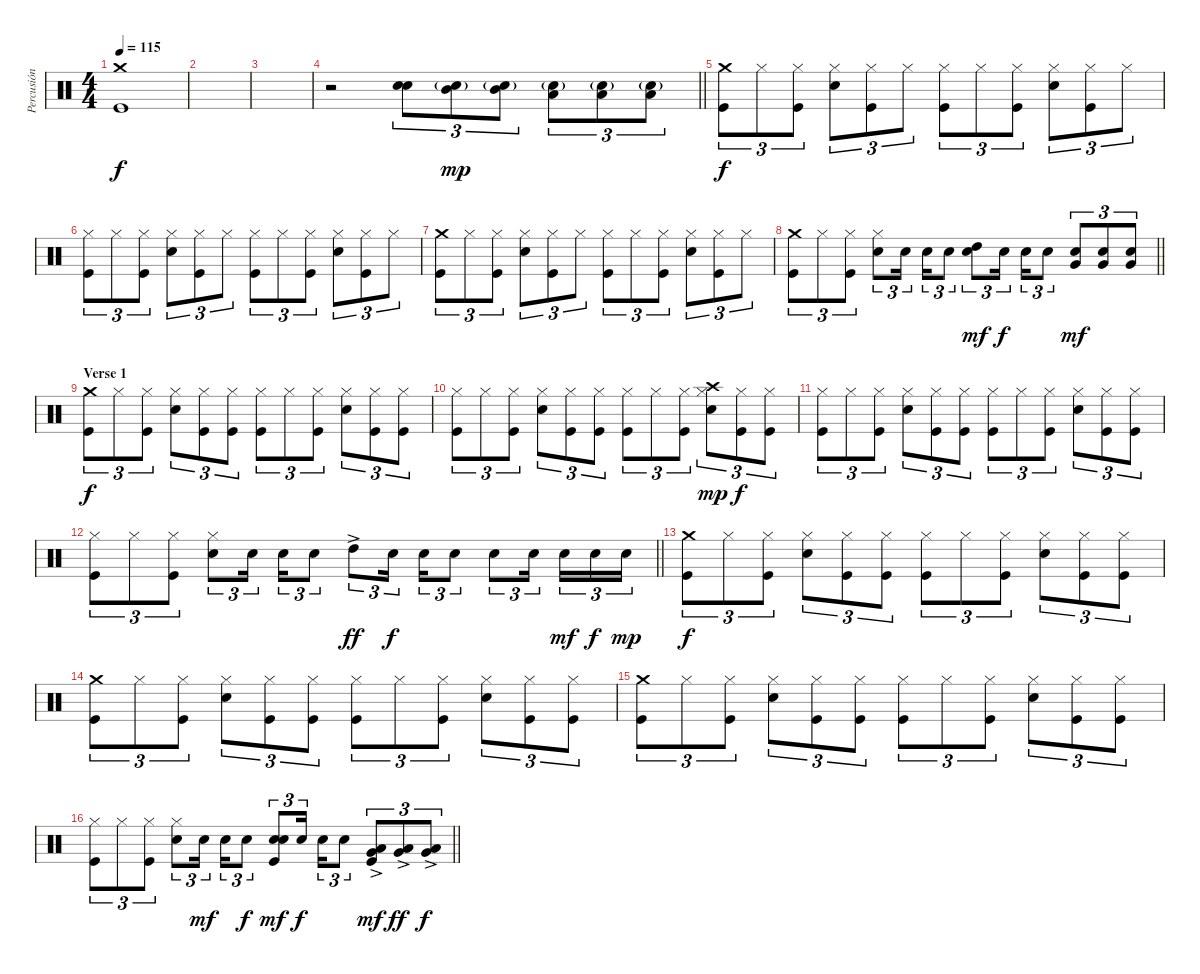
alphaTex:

\track ("Percusión" "Percusión") {instrument percussion}
\staff {score}
\articulation defaults
\ts (4 4)
\section ("" "")
\tempo 115
\clef neutral
\ks c
("Crash medium (hit)" "Kick (hit)").1{dy f} |
|
|
\barLineRight lightlight
r.2 ("Electric Snare (hit)" "Electric Snare (hit)").8{tu (3 2)} ("Mid Tom (hit)" "Electric Snare (hit)"{g}).8{tu (3 2) dy mp} ("Mid Tom (hit)" "Electric Snare (hit)"{g}).8{tu (3 2)} ("Low Tom (hit)" "Electric Snare (hit)"{g}).8{tu (3 2)} ("Low Tom (hit)" "Electric Snare (hit)"{g}).8{tu (3 2)} ("Low Tom (hit)" "Electric Snare (hit)"{g}).8{tu (3 2)} |
("Crash medium (hit)" "Kick (hit)").8{tu (3 2) dy f} "Hi-Hat (closed)".8{tu (3 2)} ("Hi-Hat (closed)" "Kick (hit)").8{tu (3 2)} ("Electric Snare (hit)" "Hi-Hat (closed)").8{tu (3 2)} ("Hi-Hat (closed)" "Kick (hit)").8{tu (3 2)} "Hi-Hat (closed)".8{tu (3 2)} ("Hi-Hat (closed)" "Kick (hit)").8{tu (3 2)} "Hi-Hat (closed)".8{tu (3 2)} ("Hi-Hat (closed)" "Kick (hit)").8{tu (3 2)} ("Electric Snare (hit)" "Hi-Hat (closed)").8{tu (3 2)} ("Hi-Hat (closed)" "Kick (hit)").8{tu (3 2)} "Hi-Hat (closed)".8{tu (3 2)} |
("Hi-Hat (closed)" "Kick (hit)").8{tu (3 2)} "Hi-Hat (closed)".8{tu (3 2)} ("Hi-Hat (closed)" "Kick (hit)").8{tu (3 2)} ("Electric Snare (hit)" "Hi-Hat (closed)").8{tu (3 2)} ("Hi-Hat (closed)" "Kick (hit)").8{tu (3 2)} "Hi-Hat (closed)".8{tu (3 2)} ("Hi-Hat (closed)" "Kick (hit)").8{tu (3 2)} "Hi-Hat (closed)".8{tu (3 2)} ("Hi-Hat (closed)" "Kick (hit)").8{tu (3 2)} ("Electric Snare (hit)" "Hi-Hat (closed)").8{tu (3 2)} ("Hi-Hat (closed)" "Kick (hit)").8{tu (3 2)} "Hi-Hat (closed)".8{tu (3 2)} |
("Crash medium (hit)" "Kick (hit)").8{tu (3 2)} "Hi-Hat (closed)".8{tu (3 2)} ("Hi-Hat (closed)" "Kick (hit)").8{tu (3 2)} ("Electric Snare (hit)" "Hi-Hat (closed)").8{tu (3 2)} ("Hi-Hat (closed)" "Kick (hit)").8{tu (3 2)} "Hi-Hat (closed)".8{tu (3 2)} ("Hi-Hat (closed)" "Kick (hit)").8{tu (3 2)} "Hi-Hat (closed)".8{tu (3 2)} ("Hi-Hat (closed)" "Kick (hit)").8{tu (3 2)} ("Electric Snare (hit)" "Hi-Hat (closed)").8{tu (3 2)} ("Hi-Hat (closed)" "Kick (hit)").8{tu (3 2)} "Hi-Hat (closed)".8{tu (3 2)} |
\barLineRight lightlight
("Crash medium (hit)" "Kick (hit)").8{tu (3 2)} "Hi-Hat (closed)".8{tu (3 2)} ("Hi-Hat (closed)" "Kick (hit)").8{tu (3 2)} ("Electric Snare (hit)" "Hi-Hat (closed)").8{tu (3 2)} "Electric Snare (hit)".16{tu (3 2) beam splitsecondary} "Electric Snare (hit)".16{tu (3 2)} "Electric Snare (hit)".8{tu (3 2)} ("High Tom (hit)" "Electric Snare (hit)").8{tu (3 2) dy mf} "Electric Snare (hit)".16{tu (3 2) dy f beam splitsecondary} "Electric Snare (hit)".16{tu (3 2)} "Electric Snare (hit)".8{tu (3 2)} ("Electric Snare (hit)" "Very Low Tom (hit)").8{tu (3 2) dy mf} ("Electric Snare (hit)" "Very Low Tom (hit)").8{tu (3 2)} ("Electric Snare (hit)" "Very Low Tom (hit)").8{tu (3 2)} |
\section ("" "Verse 1")
("Crash medium (hit)" "Kick (hit)").8{tu (3 2) dy f} "Hi-Hat (closed)".8{tu (3 2)} ("Hi-Hat (closed)" "Kick (hit)").8{tu (3 2)} ("Electric Snare (hit)" "Hi-Hat (closed)").8{tu (3 2)} ("Hi-Hat (closed)" "Kick (hit)").8{tu (3 2)} ("Hi-Hat (closed)" "Kick (hit)").8{tu (3 2)} ("Hi-Hat (closed)" "Kick (hit)").8{tu (3 2)} "Hi-Hat (closed)".8{tu (3 2)} ("Hi-Hat (closed)" "Kick (hit)").8{tu (3 2)} ("Electric Snare (hit)" "Hi-Hat (closed)").8{tu (3 2)} ("Hi-Hat (closed)" "Kick (hit)").8{tu (3 2)} ("Hi-Hat (closed)" "Kick (hit)").8{tu (3 2)} |
("Hi-Hat (closed)" "Kick (hit)").8{tu (3 2)} "Hi-Hat (closed)".8{tu (3 2)} ("Hi-Hat (closed)" "Kick (hit)").8{tu (3 2)} ("Electric Snare (hit)" "Hi-Hat (closed)").8{tu (3 2)} ("Hi-Hat (closed)" "Kick (hit)").8{tu (3 2)} ("Hi-Hat (closed)" "Kick (hit)").8{tu (3 2)} ("Hi-Hat (closed)" "Kick (hit)").8{tu (3 2)} "Hi-Hat (closed)".8{tu (3 2)} ("Hi-Hat (closed)" "Kick (hit)").8{tu (3 2)} ("Crash high (hit)" "Electric Snare (hit)" "Hi-Hat (closed)").8{tu (3 2) dy mp} ("Hi-Hat (closed)" "Kick (hit)").8{tu (3 2) dy f} ("Hi-Hat (closed)" "Kick (hit)").8{tu (3 2)} |
("Hi-Hat (closed)" "Kick (hit)").8{tu (3 2)} "Hi-Hat (closed)".8{tu (3 2)} ("Hi-Hat (closed)" "Kick (hit)").8{tu (3 2)} ("Electric Snare (hit)" "Hi-Hat (closed)").8{tu (3 2)} ("Hi-Hat (closed)" "Kick (hit)").8{tu (3 2)} ("Hi-Hat (closed)" "Kick (hit)").8{tu (3 2)} ("Hi-Hat (closed)" "Kick (hit)").8{tu (3 2)} "Hi-Hat (closed)".8{tu (3 2)} ("Hi-Hat (closed)" "Kick (hit)").8{tu (3 2)} ("Electric Snare (hit)" "Hi-Hat (closed)").8{tu (3 2)} ("Hi-Hat (closed)" "Kick (hit)").8{tu (3 2)} ("Hi-Hat (closed)" "Kick (hit)").8{tu (3 2)} |
\barLineRight lightlight
("Hi-Hat (closed)" "Kick (hit)").8{tu (3 2)} "Hi-Hat (closed)".8{tu (3 2)} ("Hi-Hat (closed)" "Kick (hit)").8{tu (3 2)} ("Electric Snare (hit)" "Hi-Hat (closed)").8{tu (3 2)} "Electric Snare (hit)".16{tu (3 2) beam splitsecondary} "Electric Snare (hit)".16{tu (3 2)} "Electric Snare (hit)".8{tu (3 2)} "High Tom (hit)"{ac}.8{tu (3 2) dy ff} "Electric Snare (hit)".16{tu (3 2) dy f beam splitsecondary} "Electric Snare (hit)".16{tu (3 2)} "Electric Snare (hit)".8{tu (3 2)} "Electric Snare (hit)".8{tu (3 2)} "Electric Snare (hit)".16{tu (3 2) beam splitsecondary} "Electric Snare (hit)".16{tu (3 2) dy mf} "Electric Snare (hit)".16{tu (3 2) dy f} "Electric Snare (hit)".16{tu (3 2) dy mp} |
("Crash medium (hit)" "Kick (hit)").8{tu (3 2) dy f} "Hi-Hat (closed)".8{tu (3 2)} ("Hi-Hat (closed)" "Kick (hit)").8{tu (3 2)} ("Electric Snare (hit)" "Hi-Hat (closed)").8{tu (3 2)} ("Hi-Hat (closed)" "Kick (hit)").8{tu (3 2)} ("Hi-Hat (closed)" "Kick (hit)").8{tu (3 2)} ("Hi-Hat (closed)" "Kick (hit)").8{tu (3 2)} "Hi-Hat (closed)".8{tu (3 2)} ("Hi-Hat (closed)" "Kick (hit)").8{tu (3 2)} ("Electric Snare (hit)" "Hi-Hat (closed)").8{tu (3 2)} ("Hi-Hat (closed)" "Kick (hit)").8{tu (3 2)} ("Hi-Hat (closed)" "Kick (hit)").8{tu (3 2)} |
("Crash medium (hit)" "Kick (hit)").8{tu (3 2)} "Hi-Hat (closed)".8{tu (3 2)} ("Hi-Hat (closed)" "Kick (hit)").8{tu (3 2)} ("Electric Snare (hit)" "Hi-Hat (closed)").8{tu (3 2)} ("Hi-Hat (closed)" "Kick (hit)").8{tu (3 2)} ("Hi-Hat (closed)" "Kick (hit)").8{tu (3 2)} ("Hi-Hat (closed)" "Kick (hit)").8{tu (3 2)} "Hi-Hat (closed)".8{tu (3 2)} ("Hi-Hat (closed)" "Kick (hit)").8{tu (3 2)} ("Electric Snare (hit)" "Hi-Hat (closed)").8{tu (3 2)} ("Hi-Hat (closed)" "Kick (hit)").8{tu (3 2)} ("Hi-Hat (closed)" "Kick (hit)").8{tu (3 2)} |
("Crash medium (hit)" "Kick (hit)").8{tu (3 2)} "Hi-Hat (closed)".8{tu (3 2)} ("Hi-Hat (closed)" "Kick (hit)").8{tu (3 2)} ("Electric Snare (hit)" "Hi-Hat (closed)").8{tu (3 2)} ("Hi-Hat (closed)" "Kick (hit)").8{tu (3 2)} ("Hi-Hat (closed)" "Kick (hit)").8{tu (3 2)} ("Hi-Hat (closed)" "Kick (hit)").8{tu (3 2)} "Hi-Hat (closed)".8{tu (3 2)} ("Hi-Hat (closed)" "Kick (hit)").8{tu (3 2)} ("Electric Snare (hit)" "Hi-Hat (closed)").8{tu (3 2)} ("Hi-Hat (closed)" "Kick (hit)").8{tu (3 2)} ("Hi-Hat (closed)" "Kick (hit)").8{tu (3 2)} |
\barLineRight lightlight
("Hi-Hat (closed)" "Kick (hit)").8{tu (3 2)} "Hi-Hat (closed)".8{tu (3 2)} ("Hi-Hat (closed)" "Kick (hit)").8{tu (3 2)} ("Electric Snare (hit)" "Hi-Hat (closed)").8{tu (3 2)} "Electric Snare (hit)".16{tu (3 2) dy mf beam splitsecondary} "Electric Snare (hit)".16{tu (3 2)} "Electric Snare (hit)".8{tu (3 2) dy f} ("Electric Snare (hit)" "Electric Snare (hit)" "Kick (hit)").8{tu (3 2) dy mf} "Electric Snare (hit)".16{tu (3 2) dy f beam splitsecondary} "Electric Snare (hit)".16{tu (3 2)} "Electric Snare (hit)".8{tu (3 2)} ("Low Tom (hit)"{ac} "Very Low Tom (hit)"{ac} "Kick (hit)").8{tu (3 2) dy mf} ("Low Tom (hit)"{ac} "Very Low Tom (hit)"{ac}).8{tu (3 2) dy ff} ("Low Tom (hit)"{ac} "Very Low Tom (hit)"{ac}).8{tu (3 2) dy f}
